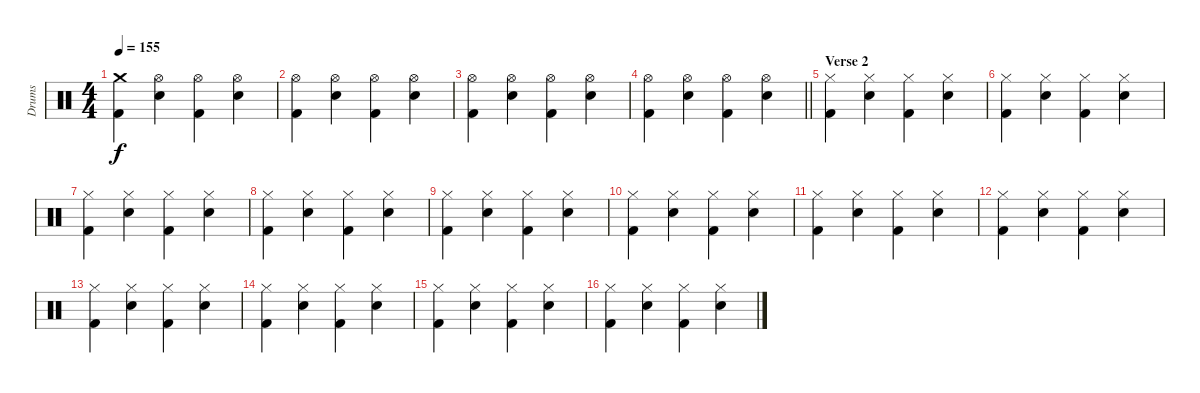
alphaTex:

\track ("Drums" "Drums") {instrument percussion}
\staff {score}
\articulation defaults
\ts (4 4)
\tempo 155
\clef neutral
\ks c
("Crash medium (hit)" "Kick (hit) 2").4{dy f} ("Hi-Hat (open)" "Electric Snare (hit)").4 ("Hi-Hat (open)" "Kick (hit) 2").4 ("Hi-Hat (open)" "Electric Snare (hit)").4 |
("Hi-Hat (open)" "Kick (hit) 2").4 ("Hi-Hat (open)" "Electric Snare (hit)").4 ("Hi-Hat (open)" "Kick (hit) 2").4 ("Hi-Hat (open)" "Electric Snare (hit)").4 |
("Kick (hit) 2" "Hi-Hat (open)").4 ("Electric Snare (hit)" "Hi-Hat (open)").4 ("Kick (hit) 2" "Hi-Hat (open)").4 ("Electric Snare (hit)" "Hi-Hat (open)").4 |
\barLineRight lightlight
("Kick (hit) 2" "Hi-Hat (open)").4 ("Electric Snare (hit)" "Hi-Hat (open)").4 ("Kick (hit) 2" "Hi-Hat (open)").4 ("Electric Snare (hit)" "Hi-Hat (open)").4 |
\section ("" "Verse 2")
("Kick (hit) 2" "Hi-Hat (closed)").4 ("Electric Snare (hit)" "Hi-Hat (closed)").4 ("Kick (hit) 2" "Hi-Hat (closed)").4 ("Electric Snare (hit)" "Hi-Hat (closed)").4 |
("Kick (hit) 2" "Hi-Hat (closed)").4 ("Electric Snare (hit)" "Hi-Hat (closed)").4 ("Kick (hit) 2" "Hi-Hat (closed)").4 ("Electric Snare (hit)" "Hi-Hat (closed)").4 |
("Kick (hit) 2" "Hi-Hat (closed)").4 ("Electric Snare (hit)" "Hi-Hat (closed)").4 ("Kick (hit) 2" "Hi-Hat (closed)").4 ("Electric Snare (hit)" "Hi-Hat (closed)").4 |
("Kick (hit) 2" "Hi-Hat (closed)").4 ("Electric Snare (hit)" "Hi-Hat (closed)").4 ("Kick (hit) 2" "Hi-Hat (closed)").4 ("Electric Snare (hit)" "Hi-Hat (closed)").4 |
("Kick (hit) 2" "Hi-Hat (closed)").4 ("Electric Snare (hit)" "Hi-Hat (closed)").4 ("Kick (hit) 2" "Hi-Hat (closed)").4 ("Electric Snare (hit)" "Hi-Hat (closed)").4 |
("Kick (hit) 2" "Hi-Hat (closed)").4 ("Electric Snare (hit)" "Hi-Hat (closed)").4 ("Kick (hit) 2" "Hi-Hat (closed)").4 ("Electric Snare (hit)" "Hi-Hat (closed)").4 |
("Kick (hit) 2" "Hi-Hat (closed)").4 ("Electric Snare (hit)" "Hi-Hat (closed)").4 ("Kick (hit) 2" "Hi-Hat (closed)").4 ("Electric Snare (hit)" "Hi-Hat (closed)").4 |
("Kick (hit) 2" "Hi-Hat (closed)").4 ("Electric Snare (hit)" "Hi-Hat (closed)").4 ("Kick (hit) 2" "Hi-Hat (closed)").4 ("Electric Snare (hit)" "Hi-Hat (closed)").4 |
("Kick (hit) 2" "Hi-Hat (closed)").4 ("Electric Snare (hit)" "Hi-Hat (closed)").4 ("Kick (hit) 2" "Hi-Hat (closed)").4 ("Electric Snare (hit)" "Hi-Hat (closed)").4 |
("Kick (hit) 2" "Hi-Hat (closed)").4 ("Electric Snare (hit)" "Hi-Hat (closed)").4 ("Kick (hit) 2" "Hi-Hat (closed)").4 ("Electric Snare (hit)" "Hi-Hat (closed)").4 |
("Kick (hit) 2" "Hi-Hat (closed)").4 ("Electric Snare (hit)" "Hi-Hat (closed)").4 ("Kick (hit) 2" "Hi-Hat (closed)").4 ("Electric Snare (hit)" "Hi-Hat (closed)").4 |
("Kick (hit) 2" "Hi-Hat (closed)").4 ("Electric Snare (hit)" "Hi-Hat (closed)").4 ("Kick (hit) 2" "Hi-Hat (closed)").4 ("Electric Snare (hit)" "Hi-Hat (closed)").4
